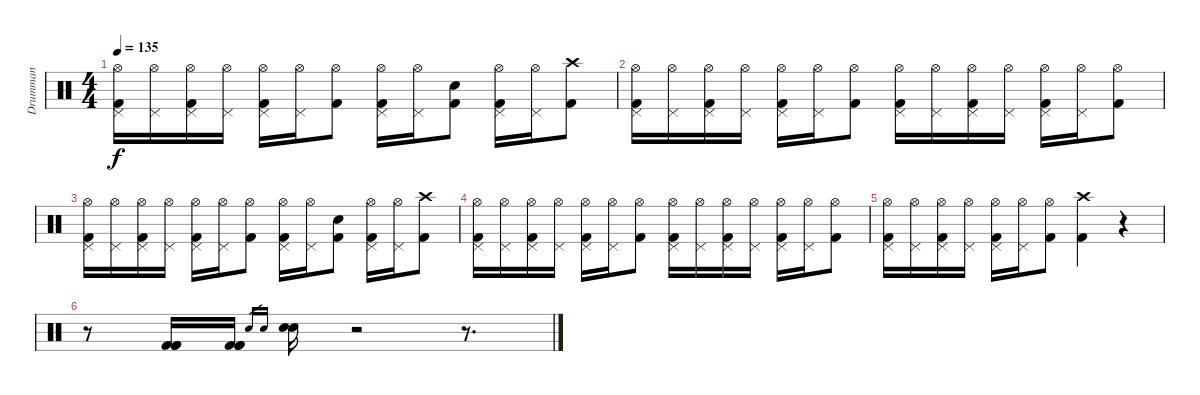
\track ("Drumman" "Drumman") {instrument percussion}
\staff {score}
\articulation defaults
\ts (4 4)
\tempo 135
\clef neutral
\ks c
("Hi-Hat (open)" "Pedal Hi-Hat (hit)" "Kick (hit) 2").16{dy f} ("Hi-Hat (open)" "Pedal Hi-Hat (hit)").16 ("Hi-Hat (open)" "Pedal Hi-Hat (hit)" "Kick (hit) 2").16 ("Hi-Hat (open)" "Pedal Hi-Hat (hit)").16 ("Hi-Hat (open)" "Pedal Hi-Hat (hit)" "Kick (hit) 2").16 ("Hi-Hat (open)" "Pedal Hi-Hat (hit)").16 ("Hi-Hat (open)" "Kick (hit) 2").8 ("Hi-Hat (open)" "Pedal Hi-Hat (hit)" "Kick (hit) 2").16 ("Hi-Hat (open)" "Pedal Hi-Hat (hit)").16 ("Snare (hit) 2" "Kick (hit) 2").8 ("Hi-Hat (open)" "Pedal Hi-Hat (hit)" "Kick (hit) 2").16 ("Hi-Hat (open)" "Pedal Hi-Hat (hit)").16 ("Crash high (hit)" "Kick (hit) 2").8 |
("Hi-Hat (open)" "Pedal Hi-Hat (hit)" "Kick (hit) 2").16 ("Hi-Hat (open)" "Pedal Hi-Hat (hit)").16 ("Hi-Hat (open)" "Pedal Hi-Hat (hit)" "Kick (hit) 2").16 ("Hi-Hat (open)" "Pedal Hi-Hat (hit)").16 ("Hi-Hat (open)" "Pedal Hi-Hat (hit)" "Kick (hit) 2").16 ("Hi-Hat (open)" "Pedal Hi-Hat (hit)").16 ("Hi-Hat (open)" "Kick (hit) 2").8 ("Hi-Hat (open)" "Pedal Hi-Hat (hit)" "Kick (hit) 2").16 ("Hi-Hat (open)" "Pedal Hi-Hat (hit)").16 ("Hi-Hat (open)" "Pedal Hi-Hat (hit)" "Kick (hit) 2").16 ("Hi-Hat (open)" "Pedal Hi-Hat (hit)").16 ("Hi-Hat (open)" "Pedal Hi-Hat (hit)" "Kick (hit) 2").16 ("Hi-Hat (open)" "Pedal Hi-Hat (hit)").16 ("Hi-Hat (open)" "Kick (hit) 2").8 |
("Hi-Hat (open)" "Pedal Hi-Hat (hit)" "Kick (hit) 2").16 ("Hi-Hat (open)" "Pedal Hi-Hat (hit)").16 ("Hi-Hat (open)" "Pedal Hi-Hat (hit)" "Kick (hit) 2").16 ("Hi-Hat (open)" "Pedal Hi-Hat (hit)").16 ("Hi-Hat (open)" "Pedal Hi-Hat (hit)" "Kick (hit) 2").16 ("Hi-Hat (open)" "Pedal Hi-Hat (hit)").16 ("Hi-Hat (open)" "Kick (hit) 2").8 ("Hi-Hat (open)" "Pedal Hi-Hat (hit)" "Kick (hit) 2").16 ("Hi-Hat (open)" "Pedal Hi-Hat (hit)").16 ("Snare (hit) 2" "Kick (hit) 2").8 ("Hi-Hat (open)" "Pedal Hi-Hat (hit)" "Kick (hit) 2").16 ("Hi-Hat (open)" "Pedal Hi-Hat (hit)").16 ("Crash high (hit)" "Kick (hit) 2").8 |
("Hi-Hat (open)" "Pedal Hi-Hat (hit)" "Kick (hit) 2").16 ("Hi-Hat (open)" "Pedal Hi-Hat (hit)").16 ("Hi-Hat (open)" "Pedal Hi-Hat (hit)" "Kick (hit) 2").16 ("Hi-Hat (open)" "Pedal Hi-Hat (hit)").16 ("Hi-Hat (open)" "Pedal Hi-Hat (hit)" "Kick (hit) 2").16 ("Hi-Hat (open)" "Pedal Hi-Hat (hit)").16 ("Hi-Hat (open)" "Kick (hit) 2").8 ("Hi-Hat (open)" "Pedal Hi-Hat (hit)" "Kick (hit) 2").16 ("Hi-Hat (open)" "Pedal Hi-Hat (hit)").16 ("Hi-Hat (open)" "Pedal Hi-Hat (hit)" "Kick (hit) 2").16 ("Hi-Hat (open)" "Pedal Hi-Hat (hit)").16 ("Hi-Hat (open)" "Pedal Hi-Hat (hit)" "Kick (hit) 2").16 ("Hi-Hat (open)" "Pedal Hi-Hat (hit)").16 ("Hi-Hat (open)" "Kick (hit) 2").8 |
("Hi-Hat (open)" "Pedal Hi-Hat (hit)" "Kick (hit) 2").16 ("Hi-Hat (open)" "Pedal Hi-Hat (hit)").16 ("Hi-Hat (open)" "Pedal Hi-Hat (hit)" "Kick (hit) 2").16 ("Hi-Hat (open)" "Pedal Hi-Hat (hit)").16 ("Hi-Hat (open)" "Pedal Hi-Hat (hit)" "Kick (hit) 2").16 ("Hi-Hat (open)" "Pedal Hi-Hat (hit)").16 ("Hi-Hat (open)" "Kick (hit) 2").8 ("Crash high (hit)" "Kick (hit) 2").4 r.4 |
r.8 ("Kick (hit) 2" "Kick (hit) 2" "Kick (hit) 2").16 ("Kick (hit) 2" "Kick (hit) 2" "Kick (hit) 2").16 "Snare (hit) 2".16{gr} "Snare (hit) 2".16{gr} ("Snare (hit) 2" "Snare (hit) 2").16{bd 120} r.2 r.8{d}
